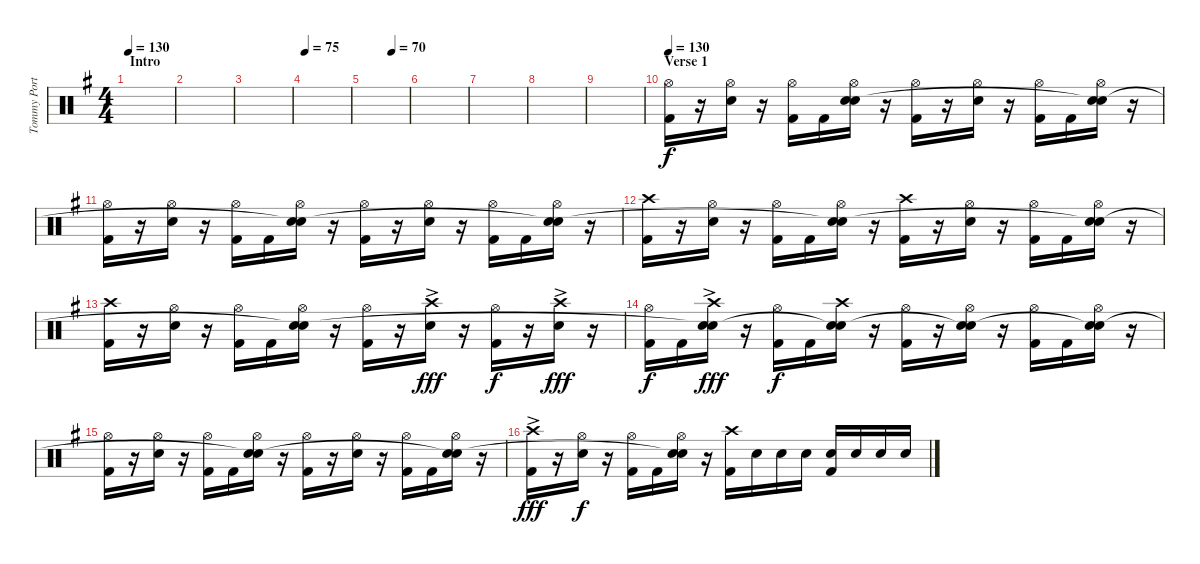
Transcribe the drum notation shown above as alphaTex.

\track ("Tommy Portimo" "Tommy Port") {instrument percussion}
\staff {score}
\articulation defaults
\ts (4 4)
\section ("" "Intro")
\tempo 130
\tempo 75
\tempo 130
\clef neutral
\ks eminor
|
|
|
\tempo 75
|
\tempo (70 0.625)
|
|
|
|
|
\section ("" "Verse 1")
\tempo 130
("Hi-Hat (open)" "Kick (hit) 2").16 r.16 ("Hi-Hat (open)" "Electric Snare (hit)").16 r.16 ("Hi-Hat (open)" "Kick (hit) 2").16 "Kick (hit) 2".16 ("Hi-Hat (open)" "Electric Snare (hit)" "Snare (hit)").16 r.16 ("Hi-Hat (open)" "Kick (hit) 2").16 r.16 ("Hi-Hat (open)" "Electric Snare (hit)").16 r.16 ("Hi-Hat (open)" "Kick (hit) 2").16 "Kick (hit) 2".16 ("Hi-Hat (open)" "Electric Snare (hit)" "Snare (hit)"{t}).16 r.16 |
("Hi-Hat (open)" "Kick (hit) 2").16 r.16 ("Hi-Hat (open)" "Electric Snare (hit)").16 r.16 ("Hi-Hat (open)" "Kick (hit) 2").16 "Kick (hit) 2".16 ("Hi-Hat (open)" "Electric Snare (hit)" "Snare (hit)"{t}).16 r.16 ("Hi-Hat (open)" "Kick (hit) 2").16 r.16 ("Hi-Hat (open)" "Electric Snare (hit)").16 r.16 ("Hi-Hat (open)" "Kick (hit) 2").16 "Kick (hit) 2".16 ("Hi-Hat (open)" "Electric Snare (hit)" "Snare (hit)"{t}).16 r.16 |
("Crash high (hit)" "Kick (hit) 2").16 r.16 ("Hi-Hat (open)" "Electric Snare (hit)").16 r.16 ("Hi-Hat (open)" "Kick (hit) 2").16 "Kick (hit) 2".16 ("Hi-Hat (open)" "Electric Snare (hit)" "Snare (hit)"{t}).16 r.16 ("Crash high (hit)" "Kick (hit) 2").16 r.16 ("Hi-Hat (open)" "Electric Snare (hit)").16 r.16 ("Hi-Hat (open)" "Kick (hit) 2").16 "Kick (hit) 2".16 ("Hi-Hat (open)" "Electric Snare (hit)" "Snare (hit)"{t}).16 r.16 |
("Crash high (hit)" "Kick (hit) 2").16 r.16 ("Hi-Hat (open)" "Electric Snare (hit)").16 r.16 ("Hi-Hat (open)" "Kick (hit) 2").16 "Kick (hit) 2".16 ("Hi-Hat (open)" "Electric Snare (hit)" "Snare (hit)"{t}).16 r.16 ("Hi-Hat (open)" "Kick (hit) 2").16 r.16 ("Crash high (hit)"{ac} "Electric Snare (hit)").16{dy fff} r.16 ("Hi-Hat (open)" "Kick (hit) 2").16{dy f} r.16 ("Crash high (hit)"{ac} "Electric Snare (hit)").16{dy fff} r.16 |
("Hi-Hat (open)" "Kick (hit) 2").16{dy f} "Kick (hit) 2".16 ("Crash high (hit)" "Electric Snare (hit)"{ac} "Snare (hit)"{t}).16{dy fff} r.16 ("Hi-Hat (open)" "Kick (hit) 2").16{dy f} "Kick (hit) 2".16 ("Crash high (hit)" "Electric Snare (hit)" "Snare (hit)"{t}).16 r.16 ("Hi-Hat (open)" "Kick (hit) 2").16 r.16 ("Hi-Hat (open)" "Electric Snare (hit)" "Snare (hit)"{t}).16 r.16 ("Hi-Hat (open)" "Kick (hit) 2").16 "Kick (hit) 2".16 ("Hi-Hat (open)" "Electric Snare (hit)" "Snare (hit)"{t}).16 r.16 |
("Hi-Hat (open)" "Kick (hit) 2").16 r.16 ("Hi-Hat (open)" "Electric Snare (hit)").16 r.16 ("Hi-Hat (open)" "Kick (hit) 2").16 "Kick (hit) 2".16 ("Hi-Hat (open)" "Electric Snare (hit)" "Snare (hit)"{t}).16 r.16 ("Hi-Hat (open)" "Kick (hit) 2").16 r.16 ("Hi-Hat (open)" "Electric Snare (hit)").16 r.16 ("Hi-Hat (open)" "Kick (hit) 2").16 "Kick (hit) 2".16 ("Hi-Hat (open)" "Electric Snare (hit)" "Snare (hit)"{t}).16 r.16 |
("Crash high (hit)"{ac} "Kick (hit) 2").16{dy fff} r.16 ("Hi-Hat (open)" "Electric Snare (hit)").16{dy f} r.16 ("Hi-Hat (open)" "Kick (hit) 2").16 "Kick (hit) 2".16 ("Hi-Hat (open)" "Electric Snare (hit)" "Snare (hit)"{t}).16 r.16 ("Crash high (hit)" "Kick (hit) 2").16 "Electric Snare (hit)".16 "Electric Snare (hit)".16 "Electric Snare (hit)".16 ("Electric Snare (hit)" "Kick (hit) 2").16 "Electric Snare (hit)".16 "Electric Snare (hit)".16 "Electric Snare (hit)".16
